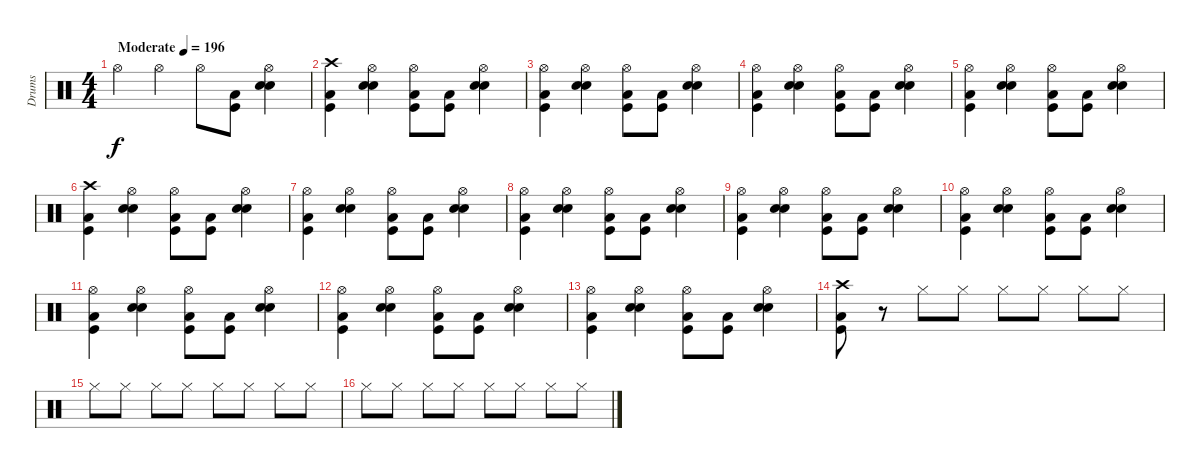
\track ("Drums" "Drums") {instrument percussion}
\staff {score}
\articulation defaults
\ts (4 4)
\tempo (196 "Moderate")
\clef neutral
\ks c "Hi-Hat (open)".4{dy f} "Hi-Hat (open)".4 "Hi-Hat (open)".8
("Kick (hit)" "Low Tom (hit)").8 ("Hi-Hat (open)" "Snare (hit) 2" "Electric Snare (hit)").4 |
("Crash high (hit)" "Kick (hit)" "Low Tom (hit)").4 ("Hi-Hat (open)" "Snare (hit) 2" "Electric Snare (hit)").4 ("Hi-Hat (open)" "Kick (hit)" "Low Tom (hit)").8 ("Kick (hit)" "Low Tom (hit)").8 ("Hi-Hat (open)" "Snare (hit) 2" "Electric Snare (hit)").4 |
("Hi-Hat (open)" "Kick (hit)" "Low Tom (hit)").4 ("Hi-Hat (open)" "Snare (hit) 2" "Electric Snare (hit)").4 ("Hi-Hat (open)" "Kick (hit)" "Low Tom (hit)").8 ("Kick (hit)" "Low Tom (hit)").8 ("Hi-Hat (open)" "Snare (hit) 2" "Electric Snare (hit)").4 |
("Hi-Hat (open)" "Kick (hit)" "Low Tom (hit)").4 ("Hi-Hat (open)" "Snare (hit) 2" "Electric Snare (hit)").4 ("Hi-Hat (open)" "Kick (hit)" "Low Tom (hit)").8 ("Kick (hit)" "Low Tom (hit)").8 ("Hi-Hat (open)" "Snare (hit) 2" "Electric Snare (hit)").4 |
("Hi-Hat (open)" "Kick (hit)" "Low Tom (hit)").4 ("Hi-Hat (open)" "Snare (hit) 2" "Electric Snare (hit)").4 ("Hi-Hat (open)" "Kick (hit)" "Low Tom (hit)").8 ("Kick (hit)" "Low Tom (hit)").8 ("Hi-Hat (open)" "Snare (hit) 2" "Electric Snare (hit)").4 |
("Crash high (hit)" "Kick (hit)" "Low Tom (hit)").4 ("Hi-Hat (open)" "Snare (hit) 2" "Electric Snare (hit)").4 ("Hi-Hat (open)" "Kick (hit)" "Low Tom (hit)").8 ("Kick (hit)" "Low Tom (hit)").8 ("Hi-Hat (open)" "Snare (hit) 2" "Electric Snare (hit)").4 |
("Hi-Hat (open)" "Kick (hit)" "Low Tom (hit)").4 ("Hi-Hat (open)" "Snare (hit) 2" "Electric Snare (hit)").4 ("Hi-Hat (open)" "Kick (hit)" "Low Tom (hit)").8 ("Kick (hit)" "Low Tom (hit)").8 ("Hi-Hat (open)" "Snare (hit) 2" "Electric Snare (hit)").4 |
("Hi-Hat (open)" "Kick (hit)" "Low Tom (hit)").4 ("Hi-Hat (open)" "Snare (hit) 2" "Electric Snare (hit)").4 ("Hi-Hat (open)" "Kick (hit)" "Low Tom (hit)").8 ("Kick (hit)" "Low Tom (hit)").8 ("Hi-Hat (open)" "Snare (hit) 2" "Electric Snare (hit)").4 |
("Hi-Hat (open)" "Kick (hit)" "Low Tom (hit)").4 ("Hi-Hat (open)" "Snare (hit) 2" "Electric Snare (hit)").4 ("Hi-Hat (open)" "Kick (hit)" "Low Tom (hit)").8 ("Kick (hit)" "Low Tom (hit)").8 ("Hi-Hat (open)" "Snare (hit) 2" "Electric Snare (hit)").4 |
("Hi-Hat (open)" "Kick (hit)" "Low Tom (hit)").4 ("Hi-Hat (open)" "Snare (hit) 2" "Electric Snare (hit)").4 ("Hi-Hat (open)" "Kick (hit)" "Low Tom (hit)").8 ("Kick (hit)" "Low Tom (hit)").8 ("Hi-Hat (open)" "Snare (hit) 2" "Electric Snare (hit)").4 |
("Hi-Hat (open)" "Kick (hit)" "Low Tom (hit)").4 ("Hi-Hat (open)" "Snare (hit) 2" "Electric Snare (hit)").4 ("Hi-Hat (open)" "Kick (hit)" "Low Tom (hit)").8 ("Kick (hit)" "Low Tom (hit)").8 ("Hi-Hat (open)" "Snare (hit) 2" "Electric Snare (hit)").4 |
("Hi-Hat (open)" "Kick (hit)" "Low Tom (hit)").4 ("Hi-Hat (open)" "Snare (hit) 2" "Electric Snare (hit)").4 ("Hi-Hat (open)" "Kick (hit)" "Low Tom (hit)").8 ("Kick (hit)" "Low Tom (hit)").8 ("Hi-Hat (open)" "Snare (hit) 2" "Electric Snare (hit)").4 |
("Hi-Hat (open)" "Kick (hit)" "Low Tom (hit)").4 ("Hi-Hat (open)" "Snare (hit) 2" "Electric Snare (hit)").4 ("Hi-Hat (open)" "Kick (hit)" "Low Tom (hit)").8 ("Kick (hit)" "Low Tom (hit)").8 ("Hi-Hat (open)" "Snare (hit) 2" "Electric Snare (hit)").4 |
("Crash high (hit)" "Kick (hit)" "Low Tom (hit)").8 r.8 "Hi-Hat (closed)".8 "Hi-Hat (closed)".8 "Hi-Hat (closed)".8 "Hi-Hat (closed)".8 "Hi-Hat (closed)".8 "Hi-Hat (closed)".8 |
"Hi-Hat (closed)".8 "Hi-Hat (closed)".8 "Hi-Hat (closed)".8 "Hi-Hat (closed)".8 "Hi-Hat (closed)".8 "Hi-Hat (closed)".8 "Hi-Hat (closed)".8 "Hi-Hat (closed)".8 |
"Hi-Hat (closed)".8 "Hi-Hat (closed)".8 "Hi-Hat (closed)".8 "Hi-Hat (closed)".8 "Hi-Hat (closed)".8 "Hi-Hat (closed)".8 "Hi-Hat (closed)".8 "Hi-Hat (closed)".8
